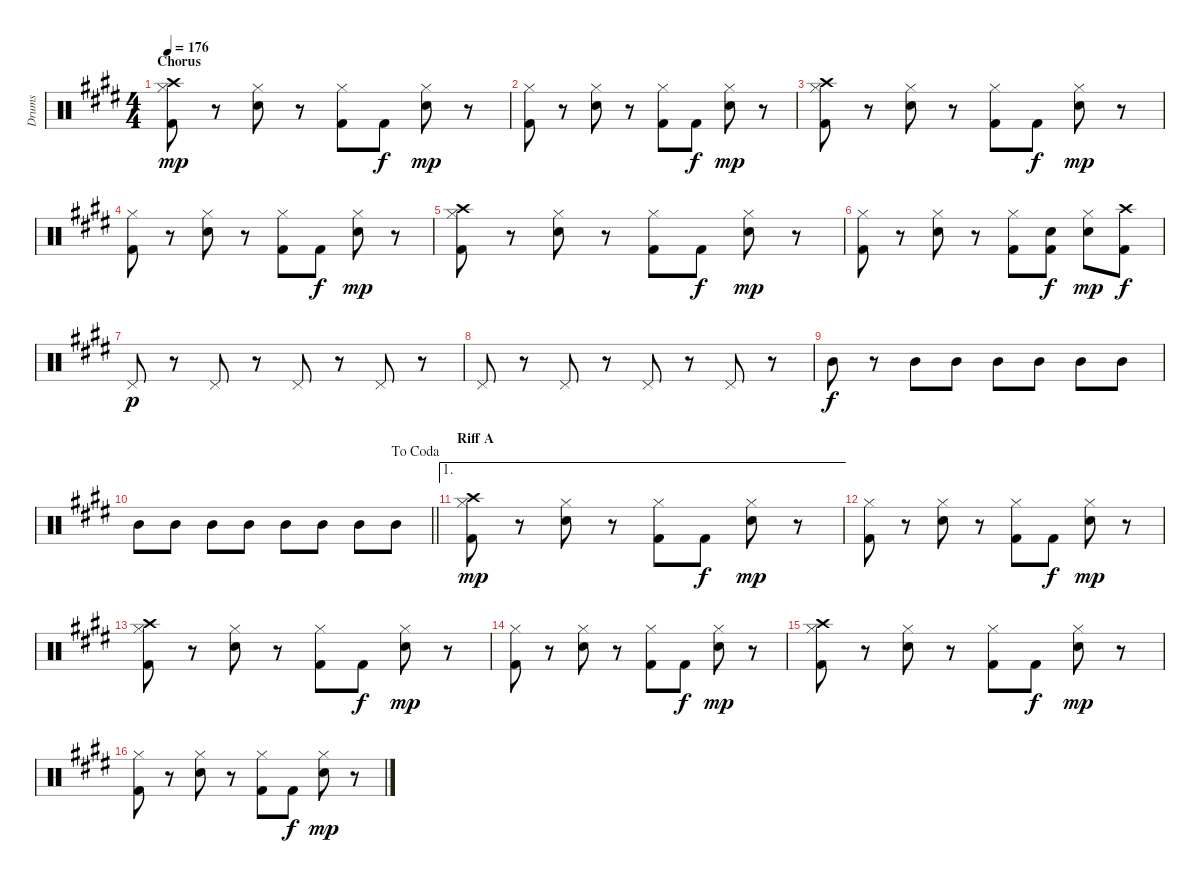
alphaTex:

\track ("Drums" "Drums") {instrument percussion}
\staff {score}
\articulation defaults
\ts (4 4)
\section ("" "Chorus")
\tempo 176
\clef neutral
\ks e
("Crash high (hit)" "Hi-Hat (closed)" "Kick (hit) 2").8{dy mp} r.8 ("Hi-Hat (closed)" "Snare (hit) 2").8 r.8 ("Hi-Hat (closed)" "Kick (hit) 2").8 "Kick (hit) 2".8{dy f} ("Hi-Hat (closed)" "Snare (hit) 2").8{dy mp} r.8 |
("Hi-Hat (closed)" "Kick (hit) 2").8 r.8 ("Hi-Hat (closed)" "Snare (hit) 2").8 r.8 ("Hi-Hat (closed)" "Kick (hit) 2").8 "Kick (hit) 2".8{dy f} ("Hi-Hat (closed)" "Snare (hit) 2").8{dy mp} r.8 |
("Crash high (hit)" "Hi-Hat (closed)" "Kick (hit) 2").8 r.8 ("Hi-Hat (closed)" "Snare (hit) 2").8 r.8 ("Hi-Hat (closed)" "Kick (hit) 2").8 "Kick (hit) 2".8{dy f} ("Hi-Hat (closed)" "Snare (hit) 2").8{dy mp} r.8 |
("Hi-Hat (closed)" "Kick (hit) 2").8 r.8 ("Hi-Hat (closed)" "Snare (hit) 2").8 r.8 ("Hi-Hat (closed)" "Kick (hit) 2").8 "Kick (hit) 2".8{dy f} ("Hi-Hat (closed)" "Snare (hit) 2").8{dy mp} r.8 |
("Crash high (hit)" "Hi-Hat (closed)" "Kick (hit) 2").8 r.8 ("Hi-Hat (closed)" "Snare (hit) 2").8 r.8 ("Hi-Hat (closed)" "Kick (hit) 2").8 "Kick (hit) 2".8{dy f} ("Hi-Hat (closed)" "Snare (hit) 2").8{dy mp} r.8 |
("Hi-Hat (closed)" "Kick (hit) 2").8 r.8 ("Hi-Hat (closed)" "Snare (hit) 2").8 r.8 ("Hi-Hat (closed)" "Kick (hit) 2").8 ("Snare (hit) 2" "Kick (hit) 2").8{dy f} ("Hi-Hat (closed)" "Snare (hit) 2").8{dy mp} ("Crash high (hit)" "Kick (hit) 2").8{dy f} |
"Pedal Hi-Hat (hit)".8{dy p} r.8 "Pedal Hi-Hat (hit)".8 r.8 "Pedal Hi-Hat (hit)".8 r.8 "Pedal Hi-Hat (hit)".8 r.8 |
"Pedal Hi-Hat (hit)".8 r.8 "Pedal Hi-Hat (hit)".8 r.8 "Pedal Hi-Hat (hit)".8 r.8 "Pedal Hi-Hat (hit)".8 r.8 |
"Mid Tom (hit)".8{dy f} r.8 "Mid Tom (hit)".8 "Mid Tom (hit)".8 "Mid Tom (hit)".8 "Mid Tom (hit)".8 "Mid Tom (hit)".8 "Mid Tom (hit)".8 |
\jump dacoda
\barLineRight lightlight "Mid Tom (hit)".8 "Mid Tom (hit)".8 "Mid Tom (hit)".8 "Mid Tom (hit)".8 "Mid Tom (hit)".8 "Mid Tom (hit)".8 "Mid Tom (hit)".8 "Mid Tom (hit)".8
|
\ae 1
\section ("" "Riff A")
("Crash high (hit)" "Hi-Hat (closed)" "Kick (hit) 2").8{dy mp} r.8 ("Hi-Hat (closed)" "Snare (hit) 2").8 r.8 ("Hi-Hat (closed)" "Kick (hit) 2").8 "Kick (hit) 2".8{dy f} ("Hi-Hat (closed)" "Snare (hit) 2").8{dy mp} r.8 |
("Hi-Hat (closed)" "Kick (hit) 2").8 r.8 ("Hi-Hat (closed)" "Snare (hit) 2").8 r.8 ("Hi-Hat (closed)" "Kick (hit) 2").8 "Kick (hit) 2".8{dy f} ("Hi-Hat (closed)" "Snare (hit) 2").8{dy mp} r.8 |
("Crash high (hit)" "Hi-Hat (closed)" "Kick (hit) 2").8 r.8 ("Hi-Hat (closed)" "Snare (hit) 2").8 r.8 ("Hi-Hat (closed)" "Kick (hit) 2").8 "Kick (hit) 2".8{dy f} ("Hi-Hat (closed)" "Snare (hit) 2").8{dy mp} r.8 |
("Hi-Hat (closed)" "Kick (hit) 2").8 r.8 ("Hi-Hat (closed)" "Snare (hit) 2").8 r.8 ("Hi-Hat (closed)" "Kick (hit) 2").8 "Kick (hit) 2".8{dy f} ("Hi-Hat (closed)" "Snare (hit) 2").8{dy mp} r.8 |
("Crash high (hit)" "Hi-Hat (closed)" "Kick (hit) 2").8 r.8 ("Hi-Hat (closed)" "Snare (hit) 2").8 r.8 ("Hi-Hat (closed)" "Kick (hit) 2").8 "Kick (hit) 2".8{dy f} ("Hi-Hat (closed)" "Snare (hit) 2").8{dy mp} r.8 |
("Hi-Hat (closed)" "Kick (hit) 2").8 r.8 ("Hi-Hat (closed)" "Snare (hit) 2").8 r.8 ("Hi-Hat (closed)" "Kick (hit) 2").8 "Kick (hit) 2".8{dy f} ("Hi-Hat (closed)" "Snare (hit) 2").8{dy mp} r.8
